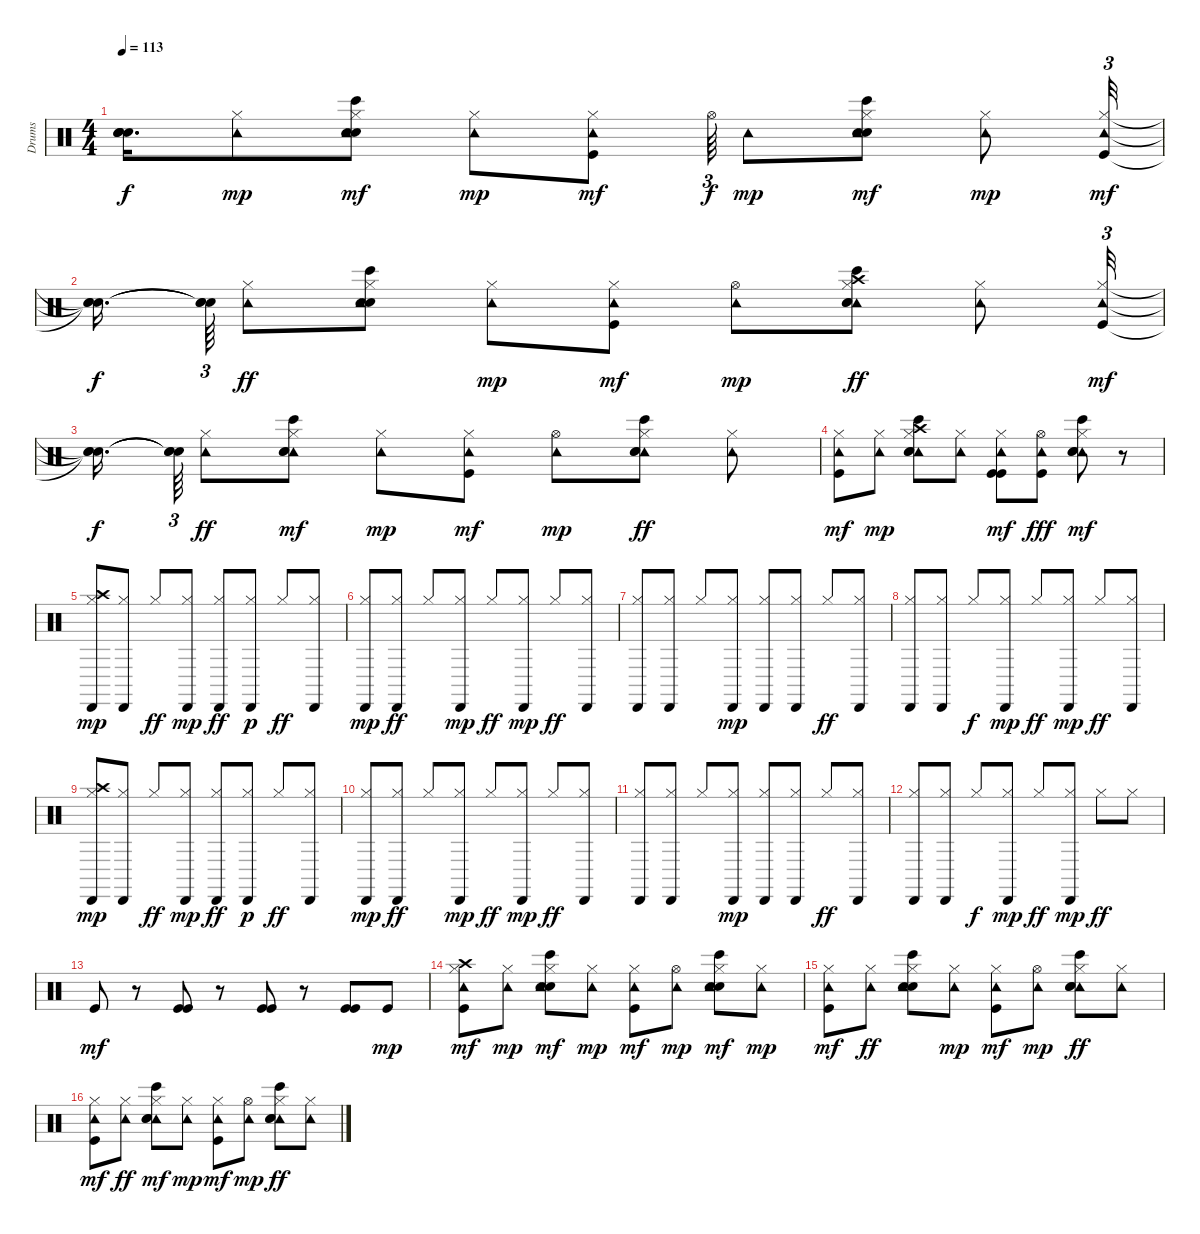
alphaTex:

\track ("Drums" "Drums") {instrument percussion}
\staff {score}
\articulation defaults
\ts (4 4)
\tempo 113
\clef neutral
\ks c
("Snare (hit)"{t} "Snare (hit)"{t} "Snare (hit)"{t} "Snare (hit)"{t}).16{d dy f} ("Tambourine (hit)" "Hi-Hat (closed)").8{dy mp} ("Hi-Hat (closed)" "Bongo High (hit)" "Snare (hit) 2" "Hand Clap (hit)" "Tambourine (hit)").8{dy mf} ("Hi-Hat (closed)" "Tambourine (hit)").8{dy mp} ("Kick (hit)" "Hi-Hat (closed)" "Tambourine (hit)").8{dy mf} "Hi-Hat (open)".64{tu (3 2) dy f} "Tambourine (hit)".8{dy mp} ("Hi-Hat (closed)" "Bongo High (hit)" "Snare (hit) 2" "Hand Clap (hit)" "Tambourine (hit)").8{dy mf} ("Hi-Hat (closed)" "Tambourine (hit)").8{dy mp} ("Kick (hit)" "Hi-Hat (closed)" "Tambourine (hit)").32{tu (3 2) dy mf} |
("Snare (hit)"{t} "Snare (hit)"{t} "Snare (hit)"{t}).16{d dy f beam splitsecondary} ("Snare (hit)"{t} "Snare (hit)"{t} "Snare (hit)"{t}).64{tu (3 2)} ("Tambourine (hit)" "Hi-Hat (closed)").8{dy ff} ("Bongo High (hit)" "Snare (hit) 2" "Hand Clap (hit)" "Tambourine (hit)" "Hi-Hat (closed)").8 ("Hi-Hat (closed)" "Tambourine (hit)").8{dy mp} ("Kick (hit)" "Hi-Hat (closed)" "Tambourine (hit)").8{dy mf} ("Tambourine (hit)" "Hi-Hat (open)").8{dy mp} ("Tambourine (hit)" "Bongo High (hit)" "Snare (hit) 2" "Hand Clap (hit)" "Crash high (hit)" "Hi-Hat (closed)").8{dy ff} ("Tambourine (hit)" "Hi-Hat (closed)").8 ("Kick (hit)" "Hi-Hat (closed)" "Tambourine (hit)").32{tu (3 2) dy mf} |
("Snare (hit)"{t} "Snare (hit)"{t} "Snare (hit)"{t}).16{d dy f beam splitsecondary} ("Snare (hit)"{t} "Snare (hit)"{t} "Snare (hit)"{t}).64{tu (3 2)} ("Tambourine (hit)" "Hi-Hat (closed)").8{dy ff} ("Tambourine (hit)" "Hi-Hat (closed)" "Bongo High (hit)" "Snare (hit) 2" "Hand Clap (hit)").8{dy mf} ("Hi-Hat (closed)" "Tambourine (hit)").8{dy mp} ("Kick (hit)" "Hi-Hat (closed)" "Tambourine (hit)").8{dy mf} ("Tambourine (hit)" "Hi-Hat (open)").8{dy mp} ("Tambourine (hit)" "Bongo High (hit)" "Snare (hit) 2" "Hand Clap (hit)" "Hi-Hat (closed)").8{dy ff} ("Tambourine (hit)" "Hi-Hat (closed)").8 |
("Kick (hit)" "Hi-Hat (closed)" "Tambourine (hit)").8{dy mf} ("Tambourine (hit)" "Hi-Hat (closed)").8{dy mp} ("Hi-Hat (closed)" "Tambourine (hit)" "Bongo High (hit)" "Snare (hit) 2" "Hand Clap (hit)" "Crash high (hit)").8 ("Tambourine (hit)" "Hi-Hat (closed)").8 ("Kick (hit)" "Kick (hit)" "Hi-Hat (closed)" "Tambourine (hit)").8{dy mf} ("Hi-Hat (open)" "Tambourine (hit)" "Kick (hit)").8{dy fff} ("Hi-Hat (closed)" "Tambourine (hit)" "Bongo High (hit)" "Snare (hit) 2" "Hand Clap (hit)").8{dy mf} r.8 |
("Hi-Hat (closed)" "Crash high (hit)" "Cabasa (hit)").8{dy mp} ("Cabasa (hit)" "Hi-Hat (closed)").8 "Hi-Hat (closed)".8{dy ff} ("Hi-Hat (closed)" "Cabasa (hit)").8{dy mp} ("Cabasa (hit)" "Hi-Hat (closed)").8{dy ff} ("Cabasa (hit)" "Hi-Hat (closed)").8{dy p} "Hi-Hat (closed)".8{dy ff} ("Cabasa (hit)" "Hi-Hat (closed)").8 |
("Cabasa (hit)" "Hi-Hat (closed)").8{dy mp} ("Hi-Hat (closed)" "Cabasa (hit)").8{dy ff} "Hi-Hat (closed)".8 ("Hi-Hat (closed)" "Cabasa (hit)").8{dy mp} "Hi-Hat (closed)".8{dy ff} ("Cabasa (hit)" "Hi-Hat (closed)").8{dy mp} "Hi-Hat (closed)".8{dy ff} ("Cabasa (hit)" "Hi-Hat (closed)").8 |
("Cabasa (hit)" "Hi-Hat (closed)").8 ("Cabasa (hit)" "Hi-Hat (closed)").8 "Hi-Hat (closed)".8 ("Hi-Hat (closed)" "Cabasa (hit)").8{dy mp} ("Hi-Hat (closed)" "Cabasa (hit)").8 ("Hi-Hat (closed)" "Cabasa (hit)").8 "Hi-Hat (closed)".8{dy ff} ("Cabasa (hit)" "Hi-Hat (closed)").8 |
("Cabasa (hit)" "Hi-Hat (closed)").8 ("Cabasa (hit)" "Hi-Hat (closed)").8 "Hi-Hat (closed)".8{dy f} ("Hi-Hat (closed)" "Cabasa (hit)").8{dy mp} "Hi-Hat (closed)".8{dy ff} ("Cabasa (hit)" "Hi-Hat (closed)").8{dy mp} "Hi-Hat (closed)".8{dy ff} ("Cabasa (hit)" "Hi-Hat (closed)").8 |
("Hi-Hat (closed)" "Crash high (hit)" "Cabasa (hit)").8{dy mp} ("Cabasa (hit)" "Hi-Hat (closed)").8 "Hi-Hat (closed)".8{dy ff} ("Hi-Hat (closed)" "Cabasa (hit)").8{dy mp} ("Cabasa (hit)" "Hi-Hat (closed)").8{dy ff} ("Cabasa (hit)" "Hi-Hat (closed)").8{dy p} "Hi-Hat (closed)".8{dy ff} ("Cabasa (hit)" "Hi-Hat (closed)").8 |
("Cabasa (hit)" "Hi-Hat (closed)").8{dy mp} ("Hi-Hat (closed)" "Cabasa (hit)").8{dy ff} "Hi-Hat (closed)".8 ("Hi-Hat (closed)" "Cabasa (hit)").8{dy mp} "Hi-Hat (closed)".8{dy ff} ("Cabasa (hit)" "Hi-Hat (closed)").8{dy mp} "Hi-Hat (closed)".8{dy ff} ("Cabasa (hit)" "Hi-Hat (closed)").8 |
("Cabasa (hit)" "Hi-Hat (closed)").8 ("Cabasa (hit)" "Hi-Hat (closed)").8 "Hi-Hat (closed)".8 ("Hi-Hat (closed)" "Cabasa (hit)").8{dy mp} ("Hi-Hat (closed)" "Cabasa (hit)").8 ("Hi-Hat (closed)" "Cabasa (hit)").8 "Hi-Hat (closed)".8{dy ff} ("Cabasa (hit)" "Hi-Hat (closed)").8 |
("Cabasa (hit)" "Hi-Hat (closed)").8 ("Cabasa (hit)" "Hi-Hat (closed)").8 "Hi-Hat (closed)".8{dy f} ("Hi-Hat (closed)" "Cabasa (hit)").8{dy mp} "Hi-Hat (closed)".8{dy ff} ("Cabasa (hit)" "Hi-Hat (closed)").8{dy mp} "Hi-Hat (closed)".8{dy ff} "Hi-Hat (closed)".8 |
"Kick (hit)".8{dy mf} r.8 ("Kick (hit)" "Kick (hit)").8 r.8 ("Kick (hit)" "Kick (hit)").8 r.8 ("Kick (hit)" "Kick (hit)").8 "Kick (hit)".8{dy mp} |
("Kick (hit)" "Hi-Hat (closed)" "Crash high (hit)" "Tambourine (hit)").8{dy mf} ("Tambourine (hit)" "Hi-Hat (closed)").8{dy mp} ("Hi-Hat (closed)" "Bongo High (hit)" "Snare (hit) 2" "Hand Clap (hit)" "Tambourine (hit)").8{dy mf} ("Hi-Hat (closed)" "Tambourine (hit)").8{dy mp} ("Kick (hit)" "Hi-Hat (closed)" "Tambourine (hit)").8{dy mf} ("Tambourine (hit)" "Hi-Hat (open)").8{dy mp} ("Hi-Hat (closed)" "Bongo High (hit)" "Snare (hit) 2" "Hand Clap (hit)" "Tambourine (hit)").8{dy mf} ("Hi-Hat (closed)" "Tambourine (hit)").8{dy mp} |
("Kick (hit)" "Hi-Hat (closed)" "Tambourine (hit)").8{dy mf} ("Tambourine (hit)" "Hi-Hat (closed)").8{dy ff} ("Bongo High (hit)" "Snare (hit) 2" "Hand Clap (hit)" "Tambourine (hit)" "Hi-Hat (closed)").8 ("Hi-Hat (closed)" "Tambourine (hit)").8{dy mp} ("Kick (hit)" "Hi-Hat (closed)" "Tambourine (hit)").8{dy mf} ("Tambourine (hit)" "Hi-Hat (open)").8{dy mp} ("Tambourine (hit)" "Bongo High (hit)" "Snare (hit) 2" "Hand Clap (hit)" "Hi-Hat (closed)").8{dy ff} ("Tambourine (hit)" "Hi-Hat (closed)").8 |
("Kick (hit)" "Hi-Hat (closed)" "Tambourine (hit)").8{dy mf} ("Tambourine (hit)" "Hi-Hat (closed)").8{dy ff} ("Tambourine (hit)" "Hi-Hat (closed)" "Bongo High (hit)" "Snare (hit) 2" "Hand Clap (hit)").8{dy mf} ("Hi-Hat (closed)" "Tambourine (hit)").8{dy mp} ("Kick (hit)" "Hi-Hat (closed)" "Tambourine (hit)").8{dy mf} ("Tambourine (hit)" "Hi-Hat (open)").8{dy mp} ("Tambourine (hit)" "Bongo High (hit)" "Snare (hit) 2" "Hand Clap (hit)" "Hi-Hat (closed)").8{dy ff} ("Tambourine (hit)" "Hi-Hat (closed)").8
